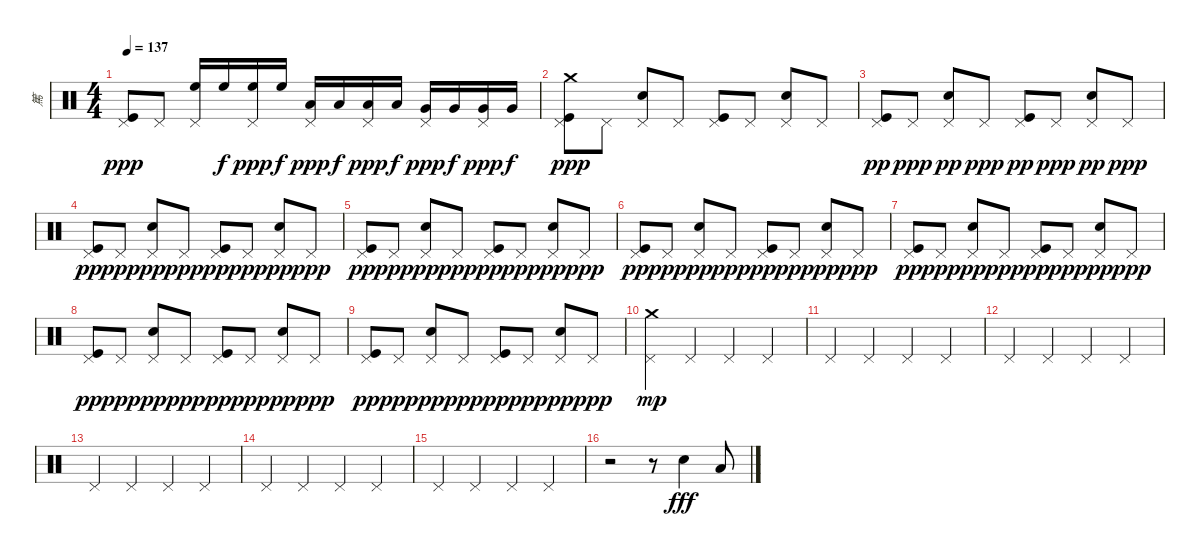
\track ("篤" "篤") {instrument percussion}
\staff {score}
\articulation defaults
\ts (4 4)
\tempo 137
\clef neutral
\ks c
("Kick (hit)" "Pedal Hi-Hat (hit)").8{dy ppp} "Pedal Hi-Hat (hit)".8 ("High Floor Tom (hit)" "Pedal Hi-Hat (hit)").16 "High Floor Tom (hit)".16{dy f} ("High Floor Tom (hit)" "Pedal Hi-Hat (hit)").16{dy ppp} "High Floor Tom (hit)".16{dy f} ("Low Tom (hit)" "Pedal Hi-Hat (hit)").16{dy ppp} "Low Tom (hit)".16{dy f} ("Low Tom (hit)" "Pedal Hi-Hat (hit)").16{dy ppp} "Low Tom (hit)".16{dy f} ("Very Low Tom (hit)" "Pedal Hi-Hat (hit)").16{dy ppp} "Very Low Tom (hit)".16{dy f} ("Very Low Tom (hit)" "Pedal Hi-Hat (hit)").16{dy ppp} "Very Low Tom (hit)".16{dy f} |
("Crash medium (hit)" "Kick (hit)" "Pedal Hi-Hat (hit)").8{dy ppp} "Pedal Hi-Hat (hit)".8 ("Snare (hit) 2" "Pedal Hi-Hat (hit)").8 "Pedal Hi-Hat (hit)".8 ("Kick (hit)" "Pedal Hi-Hat (hit)").8 "Pedal Hi-Hat (hit)".8 ("Snare (hit) 2" "Pedal Hi-Hat (hit)").8 "Pedal Hi-Hat (hit)".8 |
("Kick (hit)" "Pedal Hi-Hat (hit)").8{dy pp} "Pedal Hi-Hat (hit)".8{dy ppp} ("Snare (hit) 2" "Pedal Hi-Hat (hit)").8{dy pp} "Pedal Hi-Hat (hit)".8{dy ppp} ("Kick (hit)" "Pedal Hi-Hat (hit)").8{dy pp} "Pedal Hi-Hat (hit)".8{dy ppp} ("Snare (hit) 2" "Pedal Hi-Hat (hit)").8{dy pp} "Pedal Hi-Hat (hit)".8{dy ppp} |
("Kick (hit)" "Pedal Hi-Hat (hit)").8{dy pp} "Pedal Hi-Hat (hit)".8{dy ppp} ("Snare (hit) 2" "Pedal Hi-Hat (hit)").8{dy pp} "Pedal Hi-Hat (hit)".8{dy ppp} ("Kick (hit)" "Pedal Hi-Hat (hit)").8{dy pp} "Pedal Hi-Hat (hit)".8{dy ppp} ("Snare (hit) 2" "Pedal Hi-Hat (hit)").8{dy pp} "Pedal Hi-Hat (hit)".8{dy ppp} |
("Kick (hit)" "Pedal Hi-Hat (hit)").8{dy pp} "Pedal Hi-Hat (hit)".8{dy ppp} ("Snare (hit) 2" "Pedal Hi-Hat (hit)").8{dy pp} "Pedal Hi-Hat (hit)".8{dy ppp} ("Kick (hit)" "Pedal Hi-Hat (hit)").8{dy pp} "Pedal Hi-Hat (hit)".8{dy ppp} ("Snare (hit) 2" "Pedal Hi-Hat (hit)").8{dy pp} "Pedal Hi-Hat (hit)".8{dy ppp} |
("Kick (hit)" "Pedal Hi-Hat (hit)").8{dy pp} "Pedal Hi-Hat (hit)".8{dy ppp} ("Snare (hit) 2" "Pedal Hi-Hat (hit)").8{dy pp} "Pedal Hi-Hat (hit)".8{dy ppp} ("Kick (hit)" "Pedal Hi-Hat (hit)").8{dy pp} "Pedal Hi-Hat (hit)".8{dy ppp} ("Snare (hit) 2" "Pedal Hi-Hat (hit)").8{dy pp} "Pedal Hi-Hat (hit)".8{dy ppp} |
("Kick (hit)" "Pedal Hi-Hat (hit)").8{dy pp} "Pedal Hi-Hat (hit)".8{dy ppp} ("Snare (hit) 2" "Pedal Hi-Hat (hit)").8{dy pp} "Pedal Hi-Hat (hit)".8{dy ppp} ("Kick (hit)" "Pedal Hi-Hat (hit)").8{dy pp} "Pedal Hi-Hat (hit)".8{dy ppp} ("Snare (hit) 2" "Pedal Hi-Hat (hit)").8{dy pp} "Pedal Hi-Hat (hit)".8{dy ppp} |
("Kick (hit)" "Pedal Hi-Hat (hit)").8{dy pp} "Pedal Hi-Hat (hit)".8{dy ppp} ("Snare (hit) 2" "Pedal Hi-Hat (hit)").8{dy pp} "Pedal Hi-Hat (hit)".8{dy ppp} ("Kick (hit)" "Pedal Hi-Hat (hit)").8{dy pp} "Pedal Hi-Hat (hit)".8{dy ppp} ("Snare (hit) 2" "Pedal Hi-Hat (hit)").8{dy pp} "Pedal Hi-Hat (hit)".8{dy ppp} |
("Kick (hit)" "Pedal Hi-Hat (hit)").8{dy pp} "Pedal Hi-Hat (hit)".8{dy ppp} ("Snare (hit) 2" "Pedal Hi-Hat (hit)").8{dy pp} "Pedal Hi-Hat (hit)".8{dy ppp} ("Kick (hit)" "Pedal Hi-Hat (hit)").8{dy pp} "Pedal Hi-Hat (hit)".8{dy ppp} ("Snare (hit) 2" "Pedal Hi-Hat (hit)").8{dy pp} "Pedal Hi-Hat (hit)".8{dy ppp} |
("Crash medium (hit)" "Pedal Hi-Hat (hit)").4{dy mp} "Pedal Hi-Hat (hit)".4 "Pedal Hi-Hat (hit)".4 "Pedal Hi-Hat (hit)".4 |
"Pedal Hi-Hat (hit)".4 "Pedal Hi-Hat (hit)".4 "Pedal Hi-Hat (hit)".4 "Pedal Hi-Hat (hit)".4 |
"Pedal Hi-Hat (hit)".4 "Pedal Hi-Hat (hit)".4 "Pedal Hi-Hat (hit)".4 "Pedal Hi-Hat (hit)".4 |
"Pedal Hi-Hat (hit)".4 "Pedal Hi-Hat (hit)".4 "Pedal Hi-Hat (hit)".4 "Pedal Hi-Hat (hit)".4 |
"Pedal Hi-Hat (hit)".4 "Pedal Hi-Hat (hit)".4 "Pedal Hi-Hat (hit)".4 "Pedal Hi-Hat (hit)".4 |
"Pedal Hi-Hat (hit)".4 "Pedal Hi-Hat (hit)".4 "Pedal Hi-Hat (hit)".4 "Pedal Hi-Hat (hit)".4 |
r.2 r.8 "Snare (hit) 2".4{dy fff} "Low Tom (hit)".8
